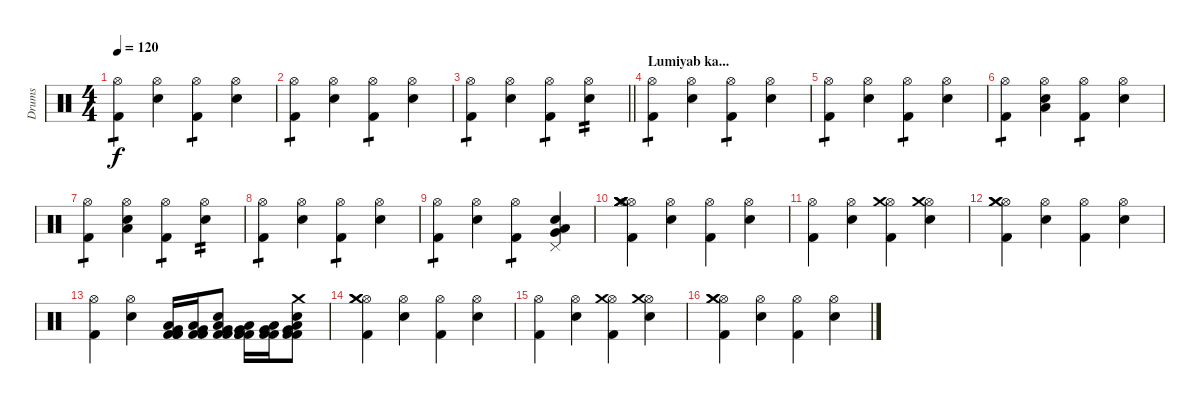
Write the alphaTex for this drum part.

\track ("Drums" "Drums") {instrument percussion}
\staff {score}
\articulation defaults
\ts (4 4)
\tempo 120
\clef neutral
\ks c
("Hi-Hat (open)" "Kick (hit) 2").4{tp 1 dy f} ("Hi-Hat (open)" "Electric Snare (hit)").4 ("Hi-Hat (open)" "Kick (hit) 2").4{tp 1} ("Hi-Hat (open)" "Electric Snare (hit)").4 |
("Hi-Hat (open)" "Kick (hit) 2").4{tp 1} ("Hi-Hat (open)" "Electric Snare (hit)").4 ("Hi-Hat (open)" "Kick (hit) 2").4{tp 1} ("Hi-Hat (open)" "Electric Snare (hit)").4 |
\barLineRight lightlight
("Hi-Hat (open)" "Kick (hit) 2").4{tp 1} ("Hi-Hat (open)" "Electric Snare (hit)").4 ("Hi-Hat (open)" "Kick (hit) 2").4{tp 1} ("Hi-Hat (open)" "Electric Snare (hit)").4{tp 2} |
\section ("" "Lumiyab ka...")
("Hi-Hat (open)" "Kick (hit) 2").4{tp 1} ("Hi-Hat (open)" "Electric Snare (hit)").4 ("Hi-Hat (open)" "Kick (hit) 2").4{tp 1} ("Hi-Hat (open)" "Electric Snare (hit)").4 |
("Hi-Hat (open)" "Kick (hit) 2").4{tp 1} ("Hi-Hat (open)" "Electric Snare (hit)").4 ("Hi-Hat (open)" "Kick (hit) 2").4{tp 1} ("Hi-Hat (open)" "Electric Snare (hit)").4 |
("Hi-Hat (open)" "Kick (hit) 2").4{tp 1} ("Hi-Hat (open)" "Electric Snare (hit)" "Low Tom (hit)").4 ("Hi-Hat (open)" "Kick (hit) 2").4{tp 1} ("Hi-Hat (open)" "Electric Snare (hit)").4 |
("Hi-Hat (open)" "Kick (hit) 2").4{tp 1} ("Hi-Hat (open)" "Electric Snare (hit)" "Low Tom (hit)").4 ("Hi-Hat (open)" "Kick (hit) 2").4{tp 1} ("Hi-Hat (open)" "Electric Snare (hit)").4{tp 2} |
("Hi-Hat (open)" "Kick (hit) 2").4{tp 1} ("Hi-Hat (open)" "Electric Snare (hit)").4 ("Hi-Hat (open)" "Kick (hit) 2").4{tp 1} ("Hi-Hat (open)" "Electric Snare (hit)").4 |
("Hi-Hat (open)" "Kick (hit) 2").4{tp 1} ("Hi-Hat (open)" "Electric Snare (hit)").4 ("Hi-Hat (open)" "Kick (hit) 2").4{tp 1} ("Pedal Hi-Hat (hit)" "Electric Snare (hit)" "Low Tom (hit)" "Very Low Tom (hit)").4 |
("Hi-Hat (open)" "Hi-Hat (open)" "Crash medium (hit)" "Kick (hit) 2" "Crash medium (hit)" "Crash medium (hit)").4 ("Hi-Hat (open)" "Electric Snare (hit)").4 ("Hi-Hat (open)" "Kick (hit) 2").4 ("Hi-Hat (open)" "Electric Snare (hit)").4 |
("Hi-Hat (open)" "Kick (hit) 2").4 ("Hi-Hat (open)" "Electric Snare (hit)").4 ("Hi-Hat (open)" "Kick (hit) 2" "Crash medium (hit)").4 ("Hi-Hat (open)" "Electric Snare (hit)" "Crash medium (hit)").4 |
("Hi-Hat (open)" "Crash medium (hit)" "Kick (hit) 2" "Crash medium (hit)").4 ("Hi-Hat (open)" "Electric Snare (hit)").4 ("Hi-Hat (open)" "Kick (hit) 2").4 ("Hi-Hat (open)" "Electric Snare (hit)").4 |
("Hi-Hat (open)" "Kick (hit) 2").4 ("Hi-Hat (open)" "Electric Snare (hit)").4 ("Low Tom (hit)" "Kick (hit) 2" "Very Low Tom (hit)" "Kick (hit) 2" "Kick (hit) 2").16 ("Low Tom (hit)" "Kick (hit) 2" "Very Low Tom (hit)" "Kick (hit) 2").16 ("Low Tom (hit)" "Kick (hit) 2" "Very Low Tom (hit)" "Kick (hit) 2" "Electric Snare (hit)").8 ("Low Tom (hit)" "Kick (hit) 2" "Very Low Tom (hit)" "Kick (hit) 2" "Kick (hit) 2").16 ("Low Tom (hit)" "Kick (hit) 2" "Very Low Tom (hit)" "Kick (hit) 2").16 ("Low Tom (hit)" "Kick (hit) 2" "Very Low Tom (hit)" "Kick (hit) 2" "Crash medium (hit)" "Electric Snare (hit)").8 |
("Hi-Hat (open)" "Crash medium (hit)" "Kick (hit) 2" "Crash medium (hit)").4 ("Hi-Hat (open)" "Electric Snare (hit)").4 ("Hi-Hat (open)" "Kick (hit) 2").4 ("Hi-Hat (open)" "Electric Snare (hit)").4 |
("Hi-Hat (open)" "Kick (hit) 2").4 ("Hi-Hat (open)" "Electric Snare (hit)").4 ("Hi-Hat (open)" "Kick (hit) 2" "Crash medium (hit)").4 ("Hi-Hat (open)" "Electric Snare (hit)" "Crash medium (hit)").4 |
("Hi-Hat (open)" "Crash medium (hit)" "Kick (hit) 2" "Crash medium (hit)").4 ("Hi-Hat (open)" "Electric Snare (hit)").4 ("Hi-Hat (open)" "Kick (hit) 2").4 ("Hi-Hat (open)" "Electric Snare (hit)").4
